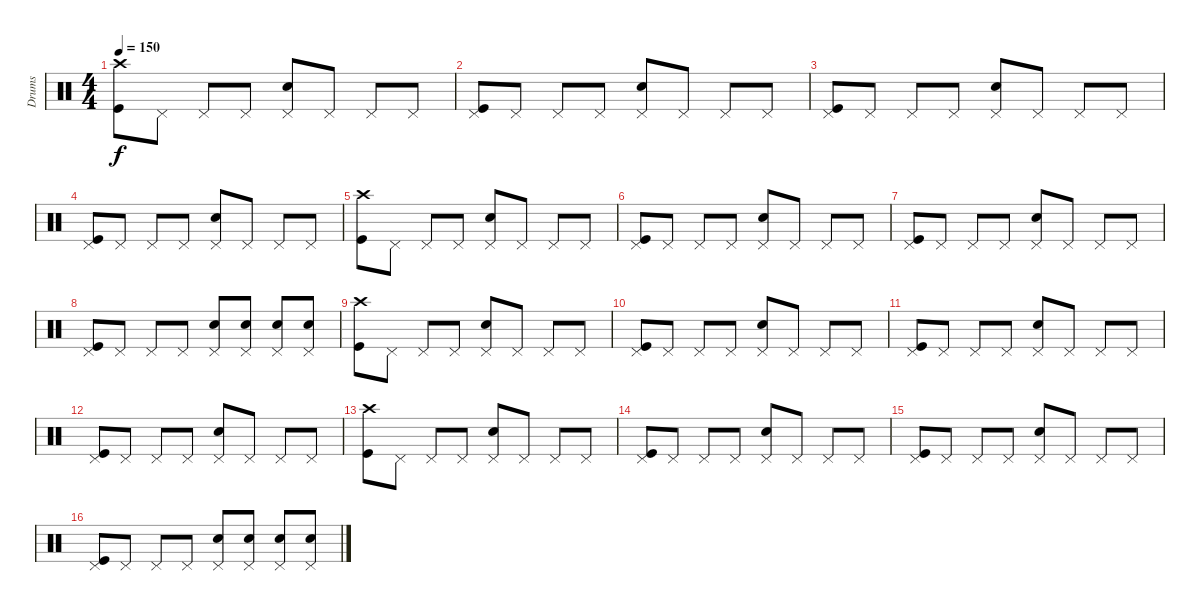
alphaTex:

\track ("Drums" "Drums") {instrument percussion}
\staff {score}
\articulation defaults
\ts (4 4)
\tempo 150
\clef neutral
\ks c
("Crash high (hit)" "Kick (hit)").8{dy f} "Pedal Hi-Hat (hit)".8 "Pedal Hi-Hat (hit)".8 "Pedal Hi-Hat (hit)".8 ("Pedal Hi-Hat (hit)" "Snare (hit) 2").8 "Pedal Hi-Hat (hit)".8 "Pedal Hi-Hat (hit)".8 "Pedal Hi-Hat (hit)".8 |
("Pedal Hi-Hat (hit)" "Kick (hit)").8 "Pedal Hi-Hat (hit)".8 "Pedal Hi-Hat (hit)".8 "Pedal Hi-Hat (hit)".8 ("Pedal Hi-Hat (hit)" "Snare (hit) 2").8 "Pedal Hi-Hat (hit)".8 "Pedal Hi-Hat (hit)".8 "Pedal Hi-Hat (hit)".8 |
("Pedal Hi-Hat (hit)" "Kick (hit)").8 "Pedal Hi-Hat (hit)".8 "Pedal Hi-Hat (hit)".8 "Pedal Hi-Hat (hit)".8 ("Pedal Hi-Hat (hit)" "Snare (hit) 2").8 "Pedal Hi-Hat (hit)".8 "Pedal Hi-Hat (hit)".8 "Pedal Hi-Hat (hit)".8 |
("Pedal Hi-Hat (hit)" "Kick (hit)").8 "Pedal Hi-Hat (hit)".8 "Pedal Hi-Hat (hit)".8 "Pedal Hi-Hat (hit)".8 ("Pedal Hi-Hat (hit)" "Snare (hit) 2").8 "Pedal Hi-Hat (hit)".8 "Pedal Hi-Hat (hit)".8 "Pedal Hi-Hat (hit)".8 |
("Crash high (hit)" "Kick (hit)").8 "Pedal Hi-Hat (hit)".8 "Pedal Hi-Hat (hit)".8 "Pedal Hi-Hat (hit)".8 ("Pedal Hi-Hat (hit)" "Snare (hit) 2").8 "Pedal Hi-Hat (hit)".8 "Pedal Hi-Hat (hit)".8 "Pedal Hi-Hat (hit)".8 |
("Pedal Hi-Hat (hit)" "Kick (hit)").8 "Pedal Hi-Hat (hit)".8 "Pedal Hi-Hat (hit)".8 "Pedal Hi-Hat (hit)".8 ("Pedal Hi-Hat (hit)" "Snare (hit) 2").8 "Pedal Hi-Hat (hit)".8 "Pedal Hi-Hat (hit)".8 "Pedal Hi-Hat (hit)".8 |
("Pedal Hi-Hat (hit)" "Kick (hit)").8 "Pedal Hi-Hat (hit)".8 "Pedal Hi-Hat (hit)".8 "Pedal Hi-Hat (hit)".8 ("Pedal Hi-Hat (hit)" "Snare (hit) 2").8 "Pedal Hi-Hat (hit)".8 "Pedal Hi-Hat (hit)".8 "Pedal Hi-Hat (hit)".8 |
("Pedal Hi-Hat (hit)" "Kick (hit)").8 "Pedal Hi-Hat (hit)".8 "Pedal Hi-Hat (hit)".8 "Pedal Hi-Hat (hit)".8 ("Pedal Hi-Hat (hit)" "Snare (hit) 2").8 ("Pedal Hi-Hat (hit)" "Snare (hit) 2").8 ("Pedal Hi-Hat (hit)" "Snare (hit) 2").8 ("Pedal Hi-Hat (hit)" "Snare (hit) 2").8 |
("Crash high (hit)" "Kick (hit)").8 "Pedal Hi-Hat (hit)".8 "Pedal Hi-Hat (hit)".8 "Pedal Hi-Hat (hit)".8 ("Pedal Hi-Hat (hit)" "Snare (hit) 2").8 "Pedal Hi-Hat (hit)".8 "Pedal Hi-Hat (hit)".8 "Pedal Hi-Hat (hit)".8 |
("Pedal Hi-Hat (hit)" "Kick (hit)").8 "Pedal Hi-Hat (hit)".8 "Pedal Hi-Hat (hit)".8 "Pedal Hi-Hat (hit)".8 ("Pedal Hi-Hat (hit)" "Snare (hit) 2").8 "Pedal Hi-Hat (hit)".8 "Pedal Hi-Hat (hit)".8 "Pedal Hi-Hat (hit)".8 |
("Pedal Hi-Hat (hit)" "Kick (hit)").8 "Pedal Hi-Hat (hit)".8 "Pedal Hi-Hat (hit)".8 "Pedal Hi-Hat (hit)".8 ("Pedal Hi-Hat (hit)" "Snare (hit) 2").8 "Pedal Hi-Hat (hit)".8 "Pedal Hi-Hat (hit)".8 "Pedal Hi-Hat (hit)".8 |
("Pedal Hi-Hat (hit)" "Kick (hit)").8 "Pedal Hi-Hat (hit)".8 "Pedal Hi-Hat (hit)".8 "Pedal Hi-Hat (hit)".8 ("Pedal Hi-Hat (hit)" "Snare (hit) 2").8 "Pedal Hi-Hat (hit)".8 "Pedal Hi-Hat (hit)".8 "Pedal Hi-Hat (hit)".8 |
("Crash high (hit)" "Kick (hit)").8 "Pedal Hi-Hat (hit)".8 "Pedal Hi-Hat (hit)".8 "Pedal Hi-Hat (hit)".8 ("Pedal Hi-Hat (hit)" "Snare (hit) 2").8 "Pedal Hi-Hat (hit)".8 "Pedal Hi-Hat (hit)".8 "Pedal Hi-Hat (hit)".8 |
("Pedal Hi-Hat (hit)" "Kick (hit)").8 "Pedal Hi-Hat (hit)".8 "Pedal Hi-Hat (hit)".8 "Pedal Hi-Hat (hit)".8 ("Pedal Hi-Hat (hit)" "Snare (hit) 2").8 "Pedal Hi-Hat (hit)".8 "Pedal Hi-Hat (hit)".8 "Pedal Hi-Hat (hit)".8 |
("Pedal Hi-Hat (hit)" "Kick (hit)").8 "Pedal Hi-Hat (hit)".8 "Pedal Hi-Hat (hit)".8 "Pedal Hi-Hat (hit)".8 ("Pedal Hi-Hat (hit)" "Snare (hit) 2").8 "Pedal Hi-Hat (hit)".8 "Pedal Hi-Hat (hit)".8 "Pedal Hi-Hat (hit)".8 |
("Pedal Hi-Hat (hit)" "Kick (hit)").8 "Pedal Hi-Hat (hit)".8 "Pedal Hi-Hat (hit)".8 "Pedal Hi-Hat (hit)".8 ("Pedal Hi-Hat (hit)" "Snare (hit) 2").8 ("Pedal Hi-Hat (hit)" "Snare (hit) 2").8 ("Pedal Hi-Hat (hit)" "Snare (hit) 2").8 ("Pedal Hi-Hat (hit)" "Snare (hit) 2").8
